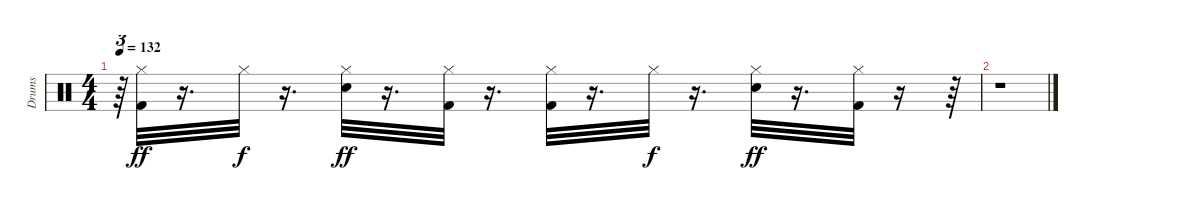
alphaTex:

\track ("Drums" "Drums") {instrument percussion}
\staff {score}
\articulation defaults
\ts (4 4)
\tempo 132
\clef neutral
\ks c
r.64{tu (3 2) dy ff} ("Kick (hit) 2" "Hi-Hat (closed)").32{volume 4} r.16{d} "Hi-Hat (closed)".32{dy f volume 3} r.16{d} ("Snare (hit) 2" "Hi-Hat (closed)").32{dy ff} r.16{d} ("Kick (hit) 2" "Hi-Hat (closed)").32{volume 3} r.16{d} ("Kick (hit) 2" "Hi-Hat (closed)").32{volume 3} r.16{d} "Hi-Hat (closed)".32{dy f volume 2} r.16{d} ("Snare (hit) 2" "Hi-Hat (closed)").32{dy ff volume 2} r.16{d} ("Kick (hit) 2" "Hi-Hat (closed)").32{volume 1} r.16 r.64 |
r.1
